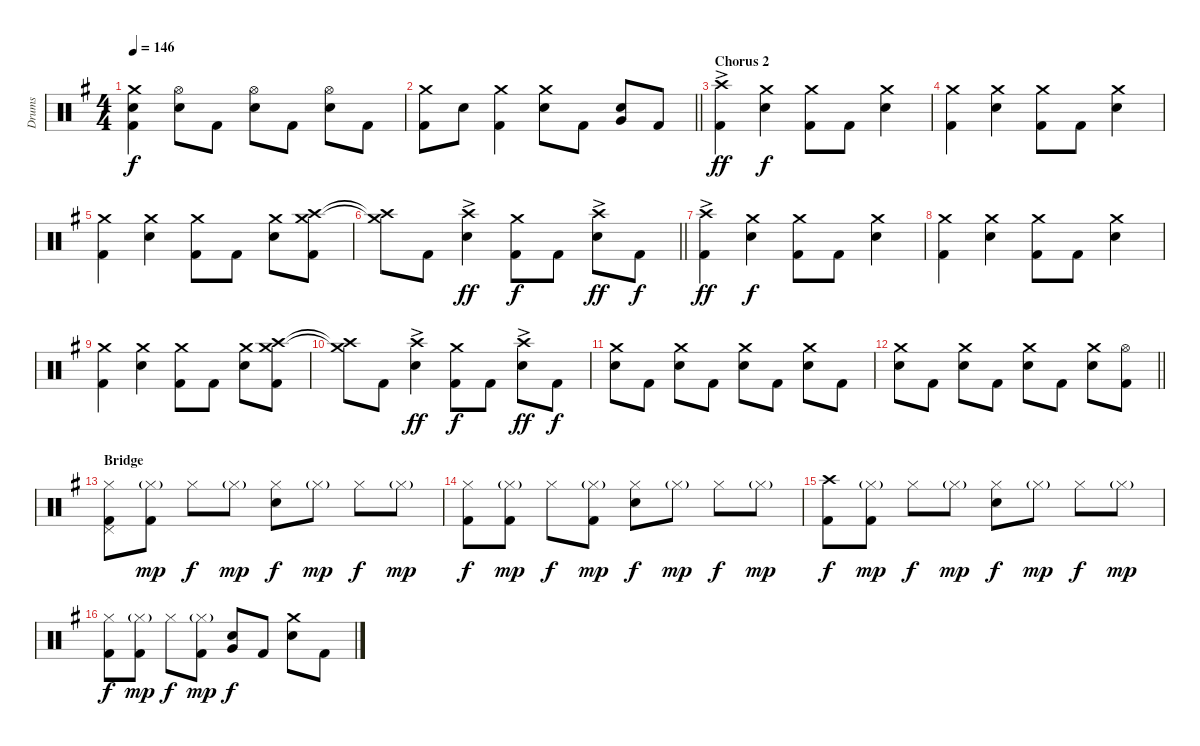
\track ("Drums" "Drums") {instrument percussion}
\staff {score}
\articulation defaults
\ts (4 4)
\tempo 146
\clef neutral
\ks g
("Crash medium (hit)" "Electric Snare (hit)" "Kick (hit) 2").4{dy f} ("Hi-Hat (open)" "Electric Snare (hit)").8 "Kick (hit) 2".8 ("Hi-Hat (open)" "Electric Snare (hit)").8 "Kick (hit) 2".8 ("Hi-Hat (open)" "Electric Snare (hit)").8 "Kick (hit) 2".8 |
\barLineRight lightlight
("Crash medium (hit)" "Kick (hit) 2").8 "Electric Snare (hit)".8 ("Crash medium (hit)" "Kick (hit) 2").4 ("Crash medium (hit)" "Electric Snare (hit)").8 "Kick (hit) 2".8 ("Very Low Tom (hit)" "Electric Snare (hit)").8 "Kick (hit) 2".8 |
\section ("" "Chorus 2")
("Crash high (hit)"{ac} "Kick (hit) 2").4{dy ff} ("Crash medium (hit)" "Electric Snare (hit)").4{dy f} ("Crash medium (hit)" "Kick (hit) 2").8 "Kick (hit) 2".8 ("Crash medium (hit)" "Electric Snare (hit)").4 |
("Crash medium (hit)" "Kick (hit) 2").4 ("Crash medium (hit)" "Electric Snare (hit)").4 ("Crash medium (hit)" "Kick (hit) 2").8 "Kick (hit) 2".8 ("Crash medium (hit)" "Electric Snare (hit)").4 |
("Crash medium (hit)" "Kick (hit) 2").4 ("Crash medium (hit)" "Electric Snare (hit)").4 ("Crash medium (hit)" "Kick (hit) 2").8 "Kick (hit) 2".8 ("Crash medium (hit)" "Electric Snare (hit)").8 ("Crash high (hit)" "Crash medium (hit)" "Kick (hit) 2").8 |
\barLineRight lightlight
("Crash high (hit)"{t} "Crash medium (hit)"{t}).8 "Kick (hit) 2".8 ("Crash high (hit)"{ac} "Electric Snare (hit)").4{dy ff} ("Crash medium (hit)" "Kick (hit) 2").8{dy f} "Kick (hit) 2".8 ("Crash high (hit)"{ac} "Electric Snare (hit)").8{dy ff} "Kick (hit) 2".8{dy f} |
("Crash high (hit)"{ac} "Kick (hit) 2").4{dy ff} ("Crash medium (hit)" "Electric Snare (hit)").4{dy f} ("Crash medium (hit)" "Kick (hit) 2").8 "Kick (hit) 2".8 ("Crash medium (hit)" "Electric Snare (hit)").4 |
("Crash medium (hit)" "Kick (hit) 2").4 ("Crash medium (hit)" "Electric Snare (hit)").4 ("Crash medium (hit)" "Kick (hit) 2").8 "Kick (hit) 2".8 ("Crash medium (hit)" "Electric Snare (hit)").4 |
("Crash medium (hit)" "Kick (hit) 2").4 ("Crash medium (hit)" "Electric Snare (hit)").4 ("Crash medium (hit)" "Kick (hit) 2").8 "Kick (hit) 2".8 ("Crash medium (hit)" "Electric Snare (hit)").8 ("Crash high (hit)" "Crash medium (hit)" "Kick (hit) 2").8 |
("Crash high (hit)"{t} "Crash medium (hit)"{t}).8 "Kick (hit) 2".8 ("Crash high (hit)"{ac} "Electric Snare (hit)").4{dy ff} ("Crash medium (hit)" "Kick (hit) 2").8{dy f} "Kick (hit) 2".8 ("Crash high (hit)"{ac} "Electric Snare (hit)").8{dy ff} "Kick (hit) 2".8{dy f} |
("Crash medium (hit)" "Electric Snare (hit)").8 "Kick (hit) 2".8 ("Crash medium (hit)" "Electric Snare (hit)").8 "Kick (hit) 2".8 ("Crash medium (hit)" "Electric Snare (hit)").8 "Kick (hit) 2".8 ("Crash medium (hit)" "Electric Snare (hit)").8 "Kick (hit) 2".8 |
\barLineRight lightlight
("Crash medium (hit)" "Electric Snare (hit)").8 "Kick (hit) 2".8 ("Crash medium (hit)" "Electric Snare (hit)").8 "Kick (hit) 2".8 ("Crash medium (hit)" "Electric Snare (hit)").8 "Kick (hit) 2".8 ("Crash medium (hit)" "Electric Snare (hit)").8 ("Hi-Hat (open)" "Kick (hit) 2").8 |
\section ("" "Bridge")
("Hi-Hat (closed)" "Pedal Hi-Hat (hit)" "Kick (hit) 2").8 ("Hi-Hat (closed)"{g} "Kick (hit) 2").8{dy mp} "Hi-Hat (closed)".8{dy f} "Hi-Hat (closed)"{g}.8{dy mp} ("Hi-Hat (closed)" "Electric Snare (hit)").8{dy f} "Hi-Hat (closed)"{g}.8{dy mp} "Hi-Hat (closed)".8{dy f} "Hi-Hat (closed)"{g}.8{dy mp} |
("Hi-Hat (closed)" "Kick (hit) 2").8{dy f} ("Hi-Hat (closed)"{g} "Kick (hit) 2").8{dy mp} "Hi-Hat (closed)".8{dy f} ("Hi-Hat (closed)"{g} "Kick (hit) 2").8{dy mp} ("Hi-Hat (closed)" "Electric Snare (hit)").8{dy f} "Hi-Hat (closed)"{g}.8{dy mp} "Hi-Hat (closed)".8{dy f} "Hi-Hat (closed)"{g}.8{dy mp} |
("Crash high (hit)" "Kick (hit) 2").8{dy f} ("Hi-Hat (closed)"{g} "Kick (hit) 2").8{dy mp} "Hi-Hat (closed)".8{dy f} "Hi-Hat (closed)"{g}.8{dy mp} ("Hi-Hat (closed)" "Electric Snare (hit)").8{dy f} "Hi-Hat (closed)"{g}.8{dy mp} "Hi-Hat (closed)".8{dy f} "Hi-Hat (closed)"{g}.8{dy mp} |
("Hi-Hat (closed)" "Kick (hit) 2").8{dy f} ("Hi-Hat (closed)"{g} "Kick (hit) 2").8{dy mp} "Hi-Hat (closed)".8{dy f} ("Hi-Hat (closed)"{g} "Kick (hit) 2").8{dy mp} ("Very Low Tom (hit)" "Electric Snare (hit)").8{dy f} "Kick (hit) 2".8 ("Crash medium (hit)" "Electric Snare (hit)").8 "Kick (hit) 2".8
